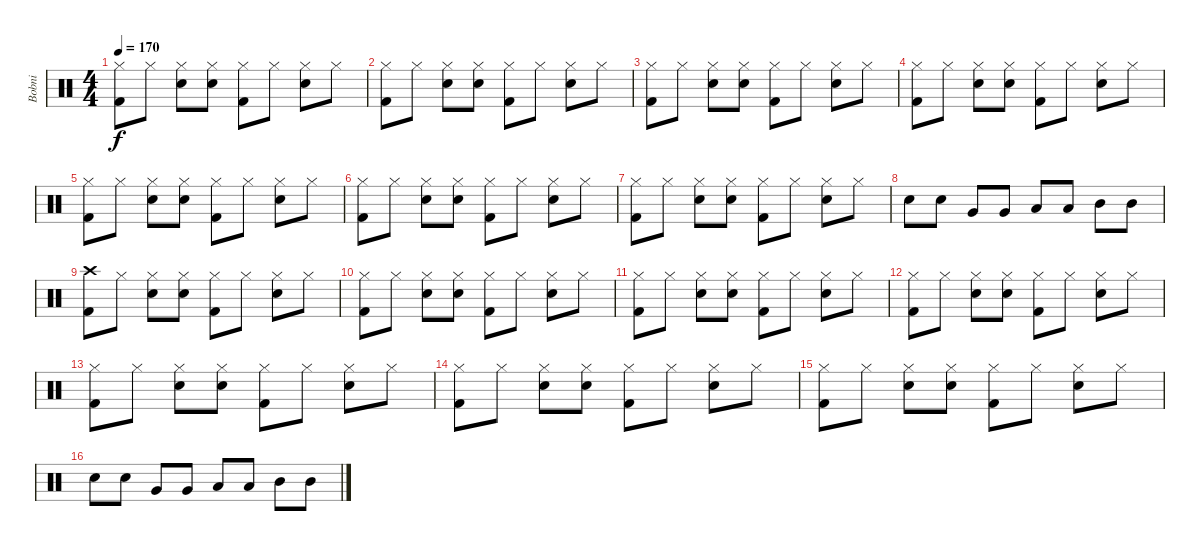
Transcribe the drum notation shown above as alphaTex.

\track ("Bobni" "Bobni") {instrument percussion}
\staff {score}
\articulation defaults
\ts (4 4)
\tempo 170
\clef neutral
\ks c
("Hi-Hat (closed)" "Kick (hit) 2").8{dy f} "Hi-Hat (closed)".8 ("Hi-Hat (closed)" "Snare (hit) 2").8 ("Hi-Hat (closed)" "Snare (hit) 2").8 ("Hi-Hat (closed)" "Kick (hit) 2").8 "Hi-Hat (closed)".8 ("Hi-Hat (closed)" "Snare (hit) 2").8 "Hi-Hat (closed)".8 |
("Hi-Hat (closed)" "Kick (hit) 2").8 "Hi-Hat (closed)".8 ("Hi-Hat (closed)" "Snare (hit) 2").8 ("Hi-Hat (closed)" "Snare (hit) 2").8 ("Hi-Hat (closed)" "Kick (hit) 2").8 "Hi-Hat (closed)".8 ("Hi-Hat (closed)" "Snare (hit) 2").8 "Hi-Hat (closed)".8 |
("Hi-Hat (closed)" "Kick (hit) 2").8 "Hi-Hat (closed)".8 ("Hi-Hat (closed)" "Snare (hit) 2").8 ("Hi-Hat (closed)" "Snare (hit) 2").8 ("Hi-Hat (closed)" "Kick (hit) 2").8 "Hi-Hat (closed)".8 ("Hi-Hat (closed)" "Snare (hit) 2").8 "Hi-Hat (closed)".8 |
("Hi-Hat (closed)" "Kick (hit) 2").8 "Hi-Hat (closed)".8 ("Hi-Hat (closed)" "Snare (hit) 2").8 ("Hi-Hat (closed)" "Snare (hit) 2").8 ("Hi-Hat (closed)" "Kick (hit) 2").8 "Hi-Hat (closed)".8 ("Hi-Hat (closed)" "Snare (hit) 2").8 "Hi-Hat (closed)".8 |
("Hi-Hat (closed)" "Kick (hit) 2").8 "Hi-Hat (closed)".8 ("Hi-Hat (closed)" "Snare (hit) 2").8 ("Hi-Hat (closed)" "Snare (hit) 2").8 ("Hi-Hat (closed)" "Kick (hit) 2").8 "Hi-Hat (closed)".8 ("Hi-Hat (closed)" "Snare (hit) 2").8 "Hi-Hat (closed)".8 |
("Hi-Hat (closed)" "Kick (hit) 2").8 "Hi-Hat (closed)".8 ("Hi-Hat (closed)" "Snare (hit) 2").8 ("Hi-Hat (closed)" "Snare (hit) 2").8 ("Hi-Hat (closed)" "Kick (hit) 2").8 "Hi-Hat (closed)".8 ("Hi-Hat (closed)" "Snare (hit) 2").8 "Hi-Hat (closed)".8 |
("Hi-Hat (closed)" "Kick (hit) 2").8 "Hi-Hat (closed)".8 ("Hi-Hat (closed)" "Snare (hit) 2").8 ("Hi-Hat (closed)" "Snare (hit) 2").8 ("Hi-Hat (closed)" "Kick (hit) 2").8 "Hi-Hat (closed)".8 ("Hi-Hat (closed)" "Snare (hit) 2").8 "Hi-Hat (closed)".8 |
"Snare (hit) 2".8 "Snare (hit) 2".8 "Very Low Tom (hit)".8 "Very Low Tom (hit)".8 "Low Tom (hit)".8 "Low Tom (hit)".8 "Mid Tom (hit)".8 "Mid Tom (hit)".8 |
("Crash high (hit)" "Kick (hit) 2").8 "Hi-Hat (closed)".8 ("Hi-Hat (closed)" "Snare (hit) 2").8 ("Hi-Hat (closed)" "Snare (hit) 2").8 ("Hi-Hat (closed)" "Kick (hit) 2").8 "Hi-Hat (closed)".8 ("Hi-Hat (closed)" "Snare (hit) 2").8 "Hi-Hat (closed)".8 |
("Hi-Hat (closed)" "Kick (hit) 2").8 "Hi-Hat (closed)".8 ("Hi-Hat (closed)" "Snare (hit) 2").8 ("Hi-Hat (closed)" "Snare (hit) 2").8 ("Hi-Hat (closed)" "Kick (hit) 2").8 "Hi-Hat (closed)".8 ("Hi-Hat (closed)" "Snare (hit) 2").8 "Hi-Hat (closed)".8 |
("Hi-Hat (closed)" "Kick (hit) 2").8 "Hi-Hat (closed)".8 ("Hi-Hat (closed)" "Snare (hit) 2").8 ("Hi-Hat (closed)" "Snare (hit) 2").8 ("Hi-Hat (closed)" "Kick (hit) 2").8 "Hi-Hat (closed)".8 ("Hi-Hat (closed)" "Snare (hit) 2").8 "Hi-Hat (closed)".8 |
("Hi-Hat (closed)" "Kick (hit) 2").8 "Hi-Hat (closed)".8 ("Hi-Hat (closed)" "Snare (hit) 2").8 ("Hi-Hat (closed)" "Snare (hit) 2").8 ("Hi-Hat (closed)" "Kick (hit) 2").8 "Hi-Hat (closed)".8 ("Hi-Hat (closed)" "Snare (hit) 2").8 "Hi-Hat (closed)".8 |
("Hi-Hat (closed)" "Kick (hit) 2").8 "Hi-Hat (closed)".8 ("Hi-Hat (closed)" "Snare (hit) 2").8 ("Hi-Hat (closed)" "Snare (hit) 2").8 ("Hi-Hat (closed)" "Kick (hit) 2").8 "Hi-Hat (closed)".8 ("Hi-Hat (closed)" "Snare (hit) 2").8 "Hi-Hat (closed)".8 |
("Hi-Hat (closed)" "Kick (hit) 2").8 "Hi-Hat (closed)".8 ("Hi-Hat (closed)" "Snare (hit) 2").8 ("Hi-Hat (closed)" "Snare (hit) 2").8 ("Hi-Hat (closed)" "Kick (hit) 2").8 "Hi-Hat (closed)".8 ("Hi-Hat (closed)" "Snare (hit) 2").8 "Hi-Hat (closed)".8 |
("Hi-Hat (closed)" "Kick (hit) 2").8 "Hi-Hat (closed)".8 ("Hi-Hat (closed)" "Snare (hit) 2").8 ("Hi-Hat (closed)" "Snare (hit) 2").8 ("Hi-Hat (closed)" "Kick (hit) 2").8 "Hi-Hat (closed)".8 ("Hi-Hat (closed)" "Snare (hit) 2").8 "Hi-Hat (closed)".8 |
"Snare (hit) 2".8 "Snare (hit) 2".8 "Very Low Tom (hit)".8 "Very Low Tom (hit)".8 "Low Tom (hit)".8 "Low Tom (hit)".8 "Mid Tom (hit)".8 "Mid Tom (hit)".8
